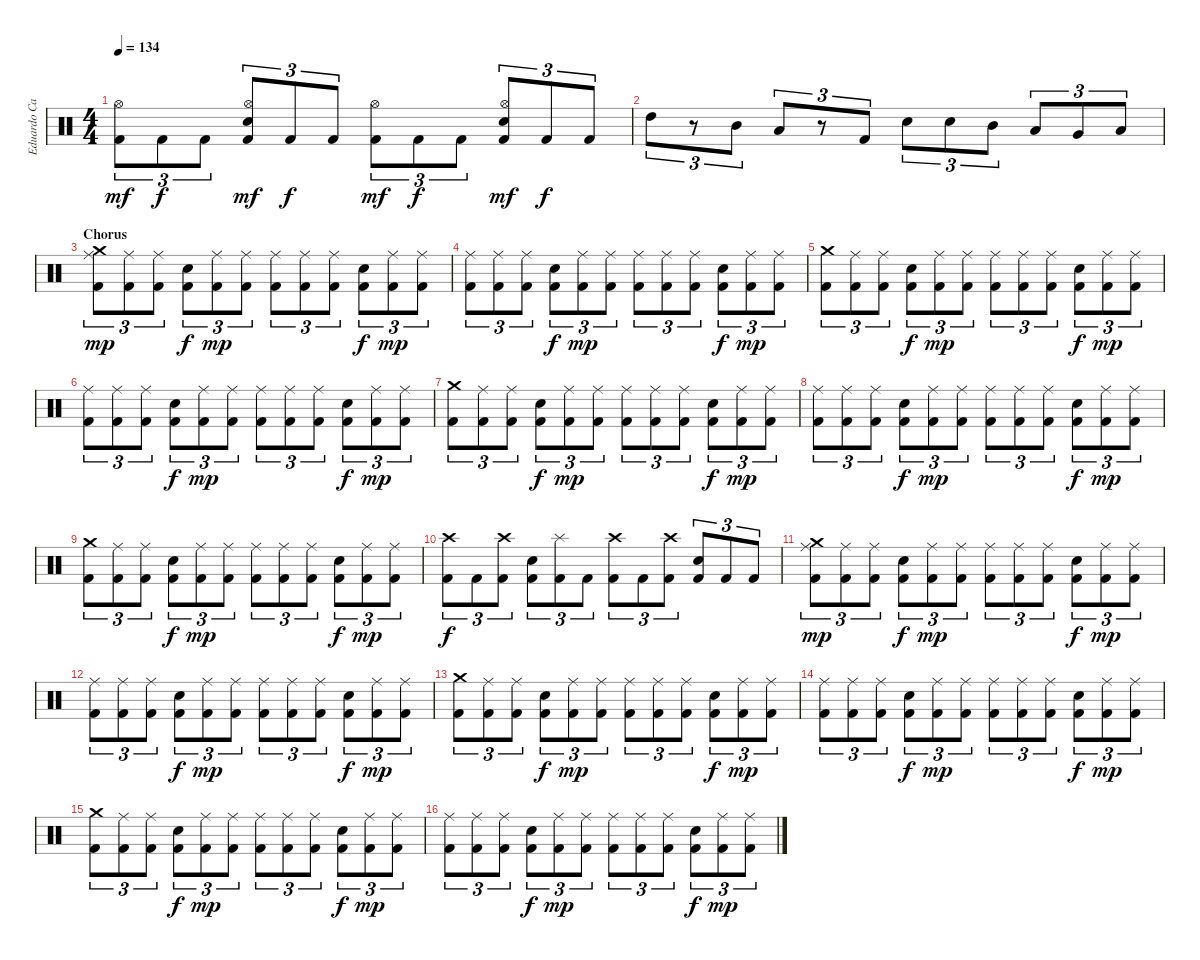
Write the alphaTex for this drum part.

\track ("Eduardo Carrillo" "Eduardo Ca") {instrument percussion}
\staff {score}
\articulation defaults
\ts (4 4)
\tempo 134
\clef neutral
\ks c
("Kick (hit) 2" "Hi-Hat (open)").8{tu (3 2) dy mf} "Kick (hit) 2".8{tu (3 2) dy f} "Kick (hit) 2".8{tu (3 2)} ("Kick (hit) 2" "Hi-Hat (open)" "Snare (hit) 2").8{tu (3 2) dy mf} "Kick (hit) 2".8{tu (3 2) dy f} "Kick (hit) 2".8{tu (3 2)} ("Kick (hit) 2" "Hi-Hat (open)").8{tu (3 2) dy mf} "Kick (hit) 2".8{tu (3 2) dy f} "Kick (hit) 2".8{tu (3 2)} ("Kick (hit) 2" "Hi-Hat (open)" "Snare (hit) 2").8{tu (3 2) dy mf} "Kick (hit) 2".8{tu (3 2) dy f} "Kick (hit) 2".8{tu (3 2)} |
"High Tom (hit)".8{tu (3 2)} r.8{tu (3 2)} "Mid Tom (hit)".8{tu (3 2)} "Low Tom (hit)".8{tu (3 2)} r.8{tu (3 2)} "Kick (hit) 2".8{tu (3 2)} "Snare (hit) 2".8{tu (3 2)} "Snare (hit) 2".8{tu (3 2)} "Mid Tom (hit)".8{tu (3 2)} "Low Tom (hit)".8{tu (3 2)} "Very Low Tom (hit)".8{tu (3 2)} "Low Floor Tom (hit)".8{tu (3 2)} |
\section ("" "Chorus")
("Kick (hit) 2" "Ride (middle)" "Crash medium (hit)").8{tu (3 2) dy mp} ("Kick (hit) 2" "Ride (middle)").8{tu (3 2)} ("Kick (hit) 2" "Ride (middle)").8{tu (3 2)} ("Kick (hit) 2" "Snare (hit) 2").8{tu (3 2) dy f} ("Kick (hit) 2" "Ride (middle)").8{tu (3 2) dy mp} ("Kick (hit) 2" "Ride (middle)").8{tu (3 2)} ("Kick (hit) 2" "Ride (middle)").8{tu (3 2)} ("Kick (hit) 2" "Ride (middle)").8{tu (3 2)} ("Kick (hit) 2" "Ride (middle)").8{tu (3 2)} ("Kick (hit) 2" "Snare (hit) 2").8{tu (3 2) dy f} ("Kick (hit) 2" "Ride (middle)").8{tu (3 2) dy mp} ("Kick (hit) 2" "Ride (middle)").8{tu (3 2)} |
("Kick (hit) 2" "Ride (middle)").8{tu (3 2)} ("Kick (hit) 2" "Ride (middle)").8{tu (3 2)} ("Kick (hit) 2" "Ride (middle)").8{tu (3 2)} ("Kick (hit) 2" "Snare (hit) 2").8{tu (3 2) dy f} ("Kick (hit) 2" "Ride (middle)").8{tu (3 2) dy mp} ("Kick (hit) 2" "Ride (middle)").8{tu (3 2)} ("Kick (hit) 2" "Ride (middle)").8{tu (3 2)} ("Kick (hit) 2" "Ride (middle)").8{tu (3 2)} ("Kick (hit) 2" "Ride (middle)").8{tu (3 2)} ("Kick (hit) 2" "Snare (hit) 2").8{tu (3 2) dy f} ("Kick (hit) 2" "Ride (middle)").8{tu (3 2) dy mp} ("Kick (hit) 2" "Ride (middle)").8{tu (3 2)} |
("Kick (hit) 2" "Crash medium (hit)").8{tu (3 2)} ("Kick (hit) 2" "Ride (middle)").8{tu (3 2)} ("Kick (hit) 2" "Ride (middle)").8{tu (3 2)} ("Kick (hit) 2" "Snare (hit) 2").8{tu (3 2) dy f} ("Kick (hit) 2" "Ride (middle)").8{tu (3 2) dy mp} ("Kick (hit) 2" "Ride (middle)").8{tu (3 2)} ("Kick (hit) 2" "Ride (middle)").8{tu (3 2)} ("Kick (hit) 2" "Ride (middle)").8{tu (3 2)} ("Kick (hit) 2" "Ride (middle)").8{tu (3 2)} ("Kick (hit) 2" "Snare (hit) 2").8{tu (3 2) dy f} ("Kick (hit) 2" "Ride (middle)").8{tu (3 2) dy mp} ("Kick (hit) 2" "Ride (middle)").8{tu (3 2)} |
("Kick (hit) 2" "Ride (middle)").8{tu (3 2)} ("Kick (hit) 2" "Ride (middle)").8{tu (3 2)} ("Kick (hit) 2" "Ride (middle)").8{tu (3 2)} ("Kick (hit) 2" "Snare (hit) 2").8{tu (3 2) dy f} ("Kick (hit) 2" "Ride (middle)").8{tu (3 2) dy mp} ("Kick (hit) 2" "Ride (middle)").8{tu (3 2)} ("Kick (hit) 2" "Ride (middle)").8{tu (3 2)} ("Kick (hit) 2" "Ride (middle)").8{tu (3 2)} ("Kick (hit) 2" "Ride (middle)").8{tu (3 2)} ("Kick (hit) 2" "Snare (hit) 2").8{tu (3 2) dy f} ("Kick (hit) 2" "Ride (middle)").8{tu (3 2) dy mp} ("Kick (hit) 2" "Ride (middle)").8{tu (3 2)} |
("Kick (hit) 2" "Crash medium (hit)").8{tu (3 2)} ("Kick (hit) 2" "Ride (middle)").8{tu (3 2)} ("Kick (hit) 2" "Ride (middle)").8{tu (3 2)} ("Kick (hit) 2" "Snare (hit) 2").8{tu (3 2) dy f} ("Kick (hit) 2" "Ride (middle)").8{tu (3 2) dy mp} ("Kick (hit) 2" "Ride (middle)").8{tu (3 2)} ("Kick (hit) 2" "Ride (middle)").8{tu (3 2)} ("Kick (hit) 2" "Ride (middle)").8{tu (3 2)} ("Kick (hit) 2" "Ride (middle)").8{tu (3 2)} ("Kick (hit) 2" "Snare (hit) 2").8{tu (3 2) dy f} ("Kick (hit) 2" "Ride (middle)").8{tu (3 2) dy mp} ("Kick (hit) 2" "Ride (middle)").8{tu (3 2)} |
("Kick (hit) 2" "Ride (middle)").8{tu (3 2)} ("Kick (hit) 2" "Ride (middle)").8{tu (3 2)} ("Kick (hit) 2" "Ride (middle)").8{tu (3 2)} ("Kick (hit) 2" "Snare (hit) 2").8{tu (3 2) dy f} ("Kick (hit) 2" "Ride (middle)").8{tu (3 2) dy mp} ("Kick (hit) 2" "Ride (middle)").8{tu (3 2)} ("Kick (hit) 2" "Ride (middle)").8{tu (3 2)} ("Kick (hit) 2" "Ride (middle)").8{tu (3 2)} ("Kick (hit) 2" "Ride (middle)").8{tu (3 2)} ("Kick (hit) 2" "Snare (hit) 2").8{tu (3 2) dy f} ("Kick (hit) 2" "Ride (middle)").8{tu (3 2) dy mp} ("Kick (hit) 2" "Ride (middle)").8{tu (3 2)} |
("Kick (hit) 2" "Crash medium (hit)").8{tu (3 2)} ("Kick (hit) 2" "Ride (middle)").8{tu (3 2)} ("Kick (hit) 2" "Ride (middle)").8{tu (3 2)} ("Kick (hit) 2" "Snare (hit) 2").8{tu (3 2) dy f} ("Kick (hit) 2" "Ride (middle)").8{tu (3 2) dy mp} ("Kick (hit) 2" "Ride (middle)").8{tu (3 2)} ("Kick (hit) 2" "Ride (middle)").8{tu (3 2)} ("Kick (hit) 2" "Ride (middle)").8{tu (3 2)} ("Kick (hit) 2" "Ride (middle)").8{tu (3 2)} ("Kick (hit) 2" "Snare (hit) 2").8{tu (3 2) dy f} ("Kick (hit) 2" "Ride (middle)").8{tu (3 2) dy mp} ("Kick (hit) 2" "Ride (middle)").8{tu (3 2)} |
("Kick (hit) 2" "Crash high (hit)").8{tu (3 2) dy f} "Kick (hit) 2".8{tu (3 2)} ("Kick (hit) 2" "Crash high (hit)").8{tu (3 2)} ("Kick (hit) 2" "Snare (hit) 2").8{tu (3 2)} ("Kick (hit) 2" "Splash (hit)").8{tu (3 2)} "Kick (hit) 2".8{tu (3 2)} ("Kick (hit) 2" "Crash high (hit)").8{tu (3 2)} "Kick (hit) 2".8{tu (3 2)} ("Kick (hit) 2" "Crash high (hit)").8{tu (3 2)} ("Kick (hit) 2" "Snare (hit) 2").8{tu (3 2)} "Kick (hit) 2".8{tu (3 2)} "Kick (hit) 2".8{tu (3 2)} |
("Kick (hit) 2" "Ride (middle)" "Crash medium (hit)").8{tu (3 2) dy mp} ("Kick (hit) 2" "Ride (middle)").8{tu (3 2)} ("Kick (hit) 2" "Ride (middle)").8{tu (3 2)} ("Kick (hit) 2" "Snare (hit) 2").8{tu (3 2) dy f} ("Kick (hit) 2" "Ride (middle)").8{tu (3 2) dy mp} ("Kick (hit) 2" "Ride (middle)").8{tu (3 2)} ("Kick (hit) 2" "Ride (middle)").8{tu (3 2)} ("Kick (hit) 2" "Ride (middle)").8{tu (3 2)} ("Kick (hit) 2" "Ride (middle)").8{tu (3 2)} ("Kick (hit) 2" "Snare (hit) 2").8{tu (3 2) dy f} ("Kick (hit) 2" "Ride (middle)").8{tu (3 2) dy mp} ("Kick (hit) 2" "Ride (middle)").8{tu (3 2)} |
("Kick (hit) 2" "Ride (middle)").8{tu (3 2)} ("Kick (hit) 2" "Ride (middle)").8{tu (3 2)} ("Kick (hit) 2" "Ride (middle)").8{tu (3 2)} ("Kick (hit) 2" "Snare (hit) 2").8{tu (3 2) dy f} ("Kick (hit) 2" "Ride (middle)").8{tu (3 2) dy mp} ("Kick (hit) 2" "Ride (middle)").8{tu (3 2)} ("Kick (hit) 2" "Ride (middle)").8{tu (3 2)} ("Kick (hit) 2" "Ride (middle)").8{tu (3 2)} ("Kick (hit) 2" "Ride (middle)").8{tu (3 2)} ("Kick (hit) 2" "Snare (hit) 2").8{tu (3 2) dy f} ("Kick (hit) 2" "Ride (middle)").8{tu (3 2) dy mp} ("Kick (hit) 2" "Ride (middle)").8{tu (3 2)} |
("Kick (hit) 2" "Crash medium (hit)").8{tu (3 2)} ("Kick (hit) 2" "Ride (middle)").8{tu (3 2)} ("Kick (hit) 2" "Ride (middle)").8{tu (3 2)} ("Kick (hit) 2" "Snare (hit) 2").8{tu (3 2) dy f} ("Kick (hit) 2" "Ride (middle)").8{tu (3 2) dy mp} ("Kick (hit) 2" "Ride (middle)").8{tu (3 2)} ("Kick (hit) 2" "Ride (middle)").8{tu (3 2)} ("Kick (hit) 2" "Ride (middle)").8{tu (3 2)} ("Kick (hit) 2" "Ride (middle)").8{tu (3 2)} ("Kick (hit) 2" "Snare (hit) 2").8{tu (3 2) dy f} ("Kick (hit) 2" "Ride (middle)").8{tu (3 2) dy mp} ("Kick (hit) 2" "Ride (middle)").8{tu (3 2)} |
("Kick (hit) 2" "Ride (middle)").8{tu (3 2)} ("Kick (hit) 2" "Ride (middle)").8{tu (3 2)} ("Kick (hit) 2" "Ride (middle)").8{tu (3 2)} ("Kick (hit) 2" "Snare (hit) 2").8{tu (3 2) dy f} ("Kick (hit) 2" "Ride (middle)").8{tu (3 2) dy mp} ("Kick (hit) 2" "Ride (middle)").8{tu (3 2)} ("Kick (hit) 2" "Ride (middle)").8{tu (3 2)} ("Kick (hit) 2" "Ride (middle)").8{tu (3 2)} ("Kick (hit) 2" "Ride (middle)").8{tu (3 2)} ("Kick (hit) 2" "Snare (hit) 2").8{tu (3 2) dy f} ("Kick (hit) 2" "Ride (middle)").8{tu (3 2) dy mp} ("Kick (hit) 2" "Ride (middle)").8{tu (3 2)} |
("Kick (hit) 2" "Crash medium (hit)").8{tu (3 2)} ("Kick (hit) 2" "Ride (middle)").8{tu (3 2)} ("Kick (hit) 2" "Ride (middle)").8{tu (3 2)} ("Kick (hit) 2" "Snare (hit) 2").8{tu (3 2) dy f} ("Kick (hit) 2" "Ride (middle)").8{tu (3 2) dy mp} ("Kick (hit) 2" "Ride (middle)").8{tu (3 2)} ("Kick (hit) 2" "Ride (middle)").8{tu (3 2)} ("Kick (hit) 2" "Ride (middle)").8{tu (3 2)} ("Kick (hit) 2" "Ride (middle)").8{tu (3 2)} ("Kick (hit) 2" "Snare (hit) 2").8{tu (3 2) dy f} ("Kick (hit) 2" "Ride (middle)").8{tu (3 2) dy mp} ("Kick (hit) 2" "Ride (middle)").8{tu (3 2)} |
("Kick (hit) 2" "Ride (middle)").8{tu (3 2)} ("Kick (hit) 2" "Ride (middle)").8{tu (3 2)} ("Kick (hit) 2" "Ride (middle)").8{tu (3 2)} ("Kick (hit) 2" "Snare (hit) 2").8{tu (3 2) dy f} ("Kick (hit) 2" "Ride (middle)").8{tu (3 2) dy mp} ("Kick (hit) 2" "Ride (middle)").8{tu (3 2)} ("Kick (hit) 2" "Ride (middle)").8{tu (3 2)} ("Kick (hit) 2" "Ride (middle)").8{tu (3 2)} ("Kick (hit) 2" "Ride (middle)").8{tu (3 2)} ("Kick (hit) 2" "Snare (hit) 2").8{tu (3 2) dy f} ("Kick (hit) 2" "Ride (middle)").8{tu (3 2) dy mp} ("Kick (hit) 2" "Ride (middle)").8{tu (3 2)}
